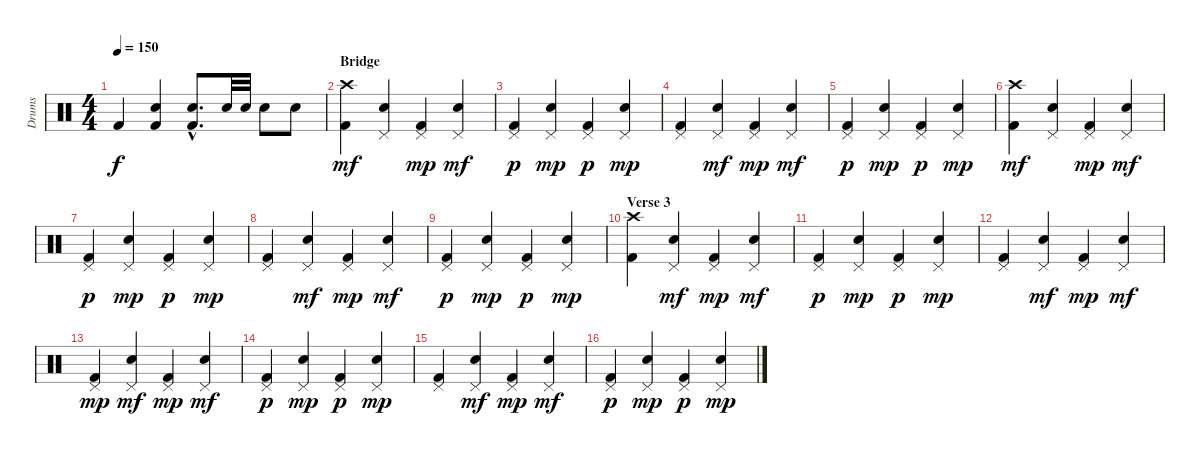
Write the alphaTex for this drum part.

\track ("Drums" "Drums") {instrument percussion}
\staff {score}
\articulation defaults
\ts (4 4)
\tempo 150
\clef neutral
\ks c "Kick (hit) 2".4{dy f}
("Electric Snare (hit)" "Kick (hit) 2").4 ("Electric Snare (hit)"{hac} "Kick (hit) 2"{hac}).8{d} "Electric Snare (hit)".32 "Electric Snare (hit)".32 "Electric Snare (hit)".8 "Electric Snare (hit)".8 |
\section ("" "Bridge")
("Crash high (hit)" "Kick (hit) 2").4{dy mf} ("Pedal Hi-Hat (hit)" "Electric Snare (hit)").4 ("Pedal Hi-Hat (hit)" "Kick (hit) 2").4{dy mp} ("Pedal Hi-Hat (hit)" "Electric Snare (hit)").4{dy mf} |
("Pedal Hi-Hat (hit)" "Kick (hit) 2").4{dy p} ("Pedal Hi-Hat (hit)" "Electric Snare (hit)").4{dy mp} ("Pedal Hi-Hat (hit)" "Kick (hit) 2").4{dy p} ("Pedal Hi-Hat (hit)" "Electric Snare (hit)").4{dy mp} |
("Pedal Hi-Hat (hit)" "Kick (hit) 2").4 ("Pedal Hi-Hat (hit)" "Electric Snare (hit)").4{dy mf} ("Pedal Hi-Hat (hit)" "Kick (hit) 2").4{dy mp} ("Pedal Hi-Hat (hit)" "Electric Snare (hit)").4{dy mf} |
("Pedal Hi-Hat (hit)" "Kick (hit) 2").4{dy p} ("Pedal Hi-Hat (hit)" "Electric Snare (hit)").4{dy mp} ("Pedal Hi-Hat (hit)" "Kick (hit) 2").4{dy p} ("Pedal Hi-Hat (hit)" "Electric Snare (hit)").4{dy mp} |
("Crash high (hit)" "Kick (hit) 2").4{dy mf} ("Pedal Hi-Hat (hit)" "Electric Snare (hit)").4 ("Pedal Hi-Hat (hit)" "Kick (hit) 2").4{dy mp} ("Pedal Hi-Hat (hit)" "Electric Snare (hit)").4{dy mf} |
("Pedal Hi-Hat (hit)" "Kick (hit) 2").4{dy p} ("Pedal Hi-Hat (hit)" "Electric Snare (hit)").4{dy mp} ("Pedal Hi-Hat (hit)" "Kick (hit) 2").4{dy p} ("Pedal Hi-Hat (hit)" "Electric Snare (hit)").4{dy mp} |
("Pedal Hi-Hat (hit)" "Kick (hit) 2").4 ("Pedal Hi-Hat (hit)" "Electric Snare (hit)").4{dy mf} ("Pedal Hi-Hat (hit)" "Kick (hit) 2").4{dy mp} ("Pedal Hi-Hat (hit)" "Electric Snare (hit)").4{dy mf} |
("Pedal Hi-Hat (hit)" "Kick (hit) 2").4{dy p} ("Pedal Hi-Hat (hit)" "Electric Snare (hit)").4{dy mp} ("Pedal Hi-Hat (hit)" "Kick (hit) 2").4{dy p} ("Pedal Hi-Hat (hit)" "Electric Snare (hit)").4{dy mp} |
\section ("" "Verse 3")
("Crash high (hit)" "Kick (hit) 2").4 ("Pedal Hi-Hat (hit)" "Electric Snare (hit)").4{dy mf} ("Pedal Hi-Hat (hit)" "Kick (hit) 2").4{dy mp} ("Pedal Hi-Hat (hit)" "Electric Snare (hit)").4{dy mf} |
("Pedal Hi-Hat (hit)" "Kick (hit) 2").4{dy p} ("Pedal Hi-Hat (hit)" "Electric Snare (hit)").4{dy mp} ("Pedal Hi-Hat (hit)" "Kick (hit) 2").4{dy p} ("Pedal Hi-Hat (hit)" "Electric Snare (hit)").4{dy mp} |
("Pedal Hi-Hat (hit)" "Kick (hit) 2").4 ("Pedal Hi-Hat (hit)" "Electric Snare (hit)").4{dy mf} ("Pedal Hi-Hat (hit)" "Kick (hit) 2").4{dy mp} ("Pedal Hi-Hat (hit)" "Electric Snare (hit)").4{dy mf} |
("Pedal Hi-Hat (hit)" "Kick (hit) 2").4{dy mp} ("Pedal Hi-Hat (hit)" "Electric Snare (hit)").4{dy mf} ("Pedal Hi-Hat (hit)" "Kick (hit) 2").4{dy mp} ("Pedal Hi-Hat (hit)" "Electric Snare (hit)").4{dy mf} |
("Pedal Hi-Hat (hit)" "Kick (hit) 2").4{dy p} ("Pedal Hi-Hat (hit)" "Electric Snare (hit)").4{dy mp} ("Pedal Hi-Hat (hit)" "Kick (hit) 2").4{dy p} ("Pedal Hi-Hat (hit)" "Electric Snare (hit)").4{dy mp} |
("Pedal Hi-Hat (hit)" "Kick (hit) 2").4 ("Pedal Hi-Hat (hit)" "Electric Snare (hit)").4{dy mf} ("Pedal Hi-Hat (hit)" "Kick (hit) 2").4{dy mp} ("Pedal Hi-Hat (hit)" "Electric Snare (hit)").4{dy mf} |
("Pedal Hi-Hat (hit)" "Kick (hit) 2").4{dy p} ("Pedal Hi-Hat (hit)" "Electric Snare (hit)").4{dy mp} ("Pedal Hi-Hat (hit)" "Kick (hit) 2").4{dy p} ("Pedal Hi-Hat (hit)" "Electric Snare (hit)").4{dy mp}
